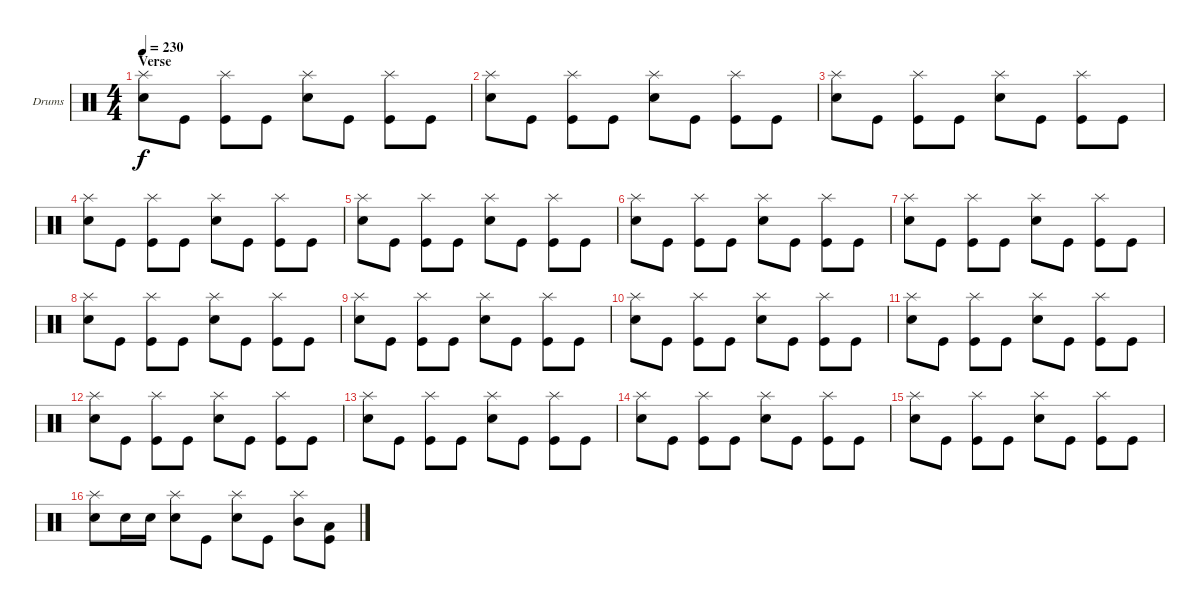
\defaultSystemsLayout 4
\bracketExtendMode groupsimilarinstruments
\firstSystemTrackNameOrientation horizontal
\otherSystemsTrackNameOrientation horizontal
\track ("Drumkit" "Drums") {instrument percussion}
\staff {score}
\articulation defaults
\ts (4 4)
\section ("" "Verse")
\tempo 230
\clef neutral
\ks c
("Snare (hit) 2" "Splash (hit)").8{dy f} "Kick (hit)".8 ("Kick (hit)" "Splash (hit)").8 "Kick (hit)".8 ("Snare (hit) 2" "Splash (hit)").8 "Kick (hit)".8 ("Kick (hit)" "Splash (hit)").8 "Kick (hit)".8 |
("Snare (hit) 2" "Splash (hit)").8 "Kick (hit)".8 ("Kick (hit)" "Splash (hit)").8 "Kick (hit)".8 ("Snare (hit) 2" "Splash (hit)").8 "Kick (hit)".8 ("Kick (hit)" "Splash (hit)").8 "Kick (hit)".8 |
("Snare (hit) 2" "Splash (hit)").8 "Kick (hit)".8 ("Kick (hit)" "Splash (hit)").8 "Kick (hit)".8 ("Snare (hit) 2" "Splash (hit)").8 "Kick (hit)".8 ("Kick (hit)" "Splash (hit)").8 "Kick (hit)".8 |
("Snare (hit) 2" "Splash (hit)").8 "Kick (hit)".8 ("Kick (hit)" "Splash (hit)").8 "Kick (hit)".8 ("Snare (hit) 2" "Splash (hit)").8 "Kick (hit)".8 ("Kick (hit)" "Splash (hit)").8 "Kick (hit)".8 |
("Snare (hit) 2" "Splash (hit)").8 "Kick (hit)".8 ("Kick (hit)" "Splash (hit)").8 "Kick (hit)".8 ("Snare (hit) 2" "Splash (hit)").8 "Kick (hit)".8 ("Kick (hit)" "Splash (hit)").8 "Kick (hit)".8 |
("Snare (hit) 2" "Splash (hit)").8 "Kick (hit)".8 ("Kick (hit)" "Splash (hit)").8 "Kick (hit)".8 ("Snare (hit) 2" "Splash (hit)").8 "Kick (hit)".8 ("Kick (hit)" "Splash (hit)").8 "Kick (hit)".8 |
("Snare (hit) 2" "Splash (hit)").8 "Kick (hit)".8 ("Kick (hit)" "Splash (hit)").8 "Kick (hit)".8 ("Snare (hit) 2" "Splash (hit)").8 "Kick (hit)".8 ("Kick (hit)" "Splash (hit)").8 "Kick (hit)".8 |
("Snare (hit) 2" "Splash (hit)").8 "Kick (hit)".8 ("Kick (hit)" "Splash (hit)").8 "Kick (hit)".8 ("Snare (hit) 2" "Splash (hit)").8 "Kick (hit)".8 ("Kick (hit)" "Splash (hit)").8 "Kick (hit)".8 |
("Snare (hit) 2" "Splash (hit)").8 "Kick (hit)".8 ("Kick (hit)" "Splash (hit)").8 "Kick (hit)".8 ("Snare (hit) 2" "Splash (hit)").8 "Kick (hit)".8 ("Kick (hit)" "Splash (hit)").8 "Kick (hit)".8 |
("Snare (hit) 2" "Splash (hit)").8 "Kick (hit)".8 ("Kick (hit)" "Splash (hit)").8 "Kick (hit)".8 ("Snare (hit) 2" "Splash (hit)").8 "Kick (hit)".8 ("Kick (hit)" "Splash (hit)").8 "Kick (hit)".8 |
("Snare (hit) 2" "Splash (hit)").8 "Kick (hit)".8 ("Kick (hit)" "Splash (hit)").8 "Kick (hit)".8 ("Snare (hit) 2" "Splash (hit)").8 "Kick (hit)".8 ("Kick (hit)" "Splash (hit)").8 "Kick (hit)".8 |
("Snare (hit) 2" "Splash (hit)").8 "Kick (hit)".8 ("Kick (hit)" "Splash (hit)").8 "Kick (hit)".8 ("Snare (hit) 2" "Splash (hit)").8 "Kick (hit)".8 ("Kick (hit)" "Splash (hit)").8 "Kick (hit)".8 |
("Snare (hit) 2" "Splash (hit)").8 "Kick (hit)".8 ("Kick (hit)" "Splash (hit)").8 "Kick (hit)".8 ("Snare (hit) 2" "Splash (hit)").8 "Kick (hit)".8 ("Kick (hit)" "Splash (hit)").8 "Kick (hit)".8 |
("Snare (hit) 2" "Splash (hit)").8 "Kick (hit)".8 ("Kick (hit)" "Splash (hit)").8 "Kick (hit)".8 ("Snare (hit) 2" "Splash (hit)").8 "Kick (hit)".8 ("Kick (hit)" "Splash (hit)").8 "Kick (hit)".8 |
("Snare (hit) 2" "Splash (hit)").8 "Kick (hit)".8 ("Kick (hit)" "Splash (hit)").8 "Kick (hit)".8 ("Snare (hit) 2" "Splash (hit)").8 "Kick (hit)".8 ("Kick (hit)" "Splash (hit)").8 "Kick (hit)".8 |
("Snare (hit) 2" "Splash (hit)").8 "Snare (hit) 2".16 "Snare (hit) 2".16 ("Splash (hit)" "Snare (hit) 2").8 "Kick (hit)".8 ("Snare (hit) 2" "Splash (hit)").8 "Kick (hit)".8 ("Splash (hit)" "Mid Tom (hit)").8 ("Kick (hit)" "Low Tom (hit)").8
